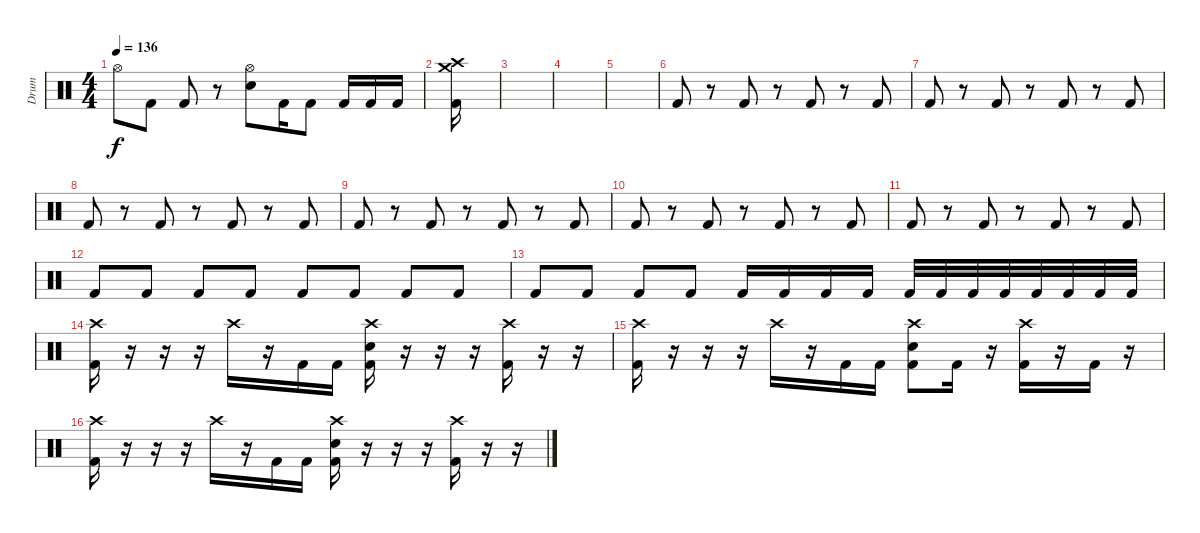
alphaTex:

\track ("Drum" "Drum") {instrument percussion}
\staff {score}
\articulation defaults
\ts (4 4)
\tempo 136
\clef neutral
\ks c "Hi-Hat (open)".8{dy f} "Kick (hit) 2".8 "Kick (hit) 2".8
r.8 ("Hi-Hat (open)" "Electric Snare (hit)").8 "Kick (hit) 2".16 "Kick (hit) 2".8 "Kick (hit) 2".16 "Kick (hit) 2".16 "Kick (hit) 2".16 |
("Crash medium (hit)" "Crash high (hit)" "Kick (hit) 2").16 |
|
|
|
"Kick (hit) 2".8 r.8 "Kick (hit) 2".8 r.8 "Kick (hit) 2".8 r.8 "Kick (hit) 2".8 |
"Kick (hit) 2".8 r.8 "Kick (hit) 2".8 r.8 "Kick (hit) 2".8 r.8 "Kick (hit) 2".8 |
"Kick (hit) 2".8 r.8 "Kick (hit) 2".8 r.8 "Kick (hit) 2".8 r.8 "Kick (hit) 2".8 |
"Kick (hit) 2".8 r.8 "Kick (hit) 2".8 r.8 "Kick (hit) 2".8 r.8 "Kick (hit) 2".8 |
"Kick (hit) 2".8 r.8 "Kick (hit) 2".8 r.8 "Kick (hit) 2".8 r.8 "Kick (hit) 2".8 |
"Kick (hit) 2".8 r.8 "Kick (hit) 2".8 r.8 "Kick (hit) 2".8 r.8 "Kick (hit) 2".8 |
"Kick (hit) 2".8 "Kick (hit) 2".8 "Kick (hit) 2".8 "Kick (hit) 2".8 "Kick (hit) 2".8 "Kick (hit) 2".8 "Kick (hit) 2".8 "Kick (hit) 2".8 |
"Kick (hit) 2".8 "Kick (hit) 2".8 "Kick (hit) 2".8 "Kick (hit) 2".8 "Kick (hit) 2".16 "Kick (hit) 2".16 "Kick (hit) 2".16 "Kick (hit) 2".16 "Kick (hit) 2".32 "Kick (hit) 2".32 "Kick (hit) 2".32 "Kick (hit) 2".32 "Kick (hit) 2".32 "Kick (hit) 2".32 "Kick (hit) 2".32 "Kick (hit) 2".32 |
("Crash high (hit)" "Kick (hit) 2").16 r.16 r.16 r.16 "Crash high (hit)".16 r.16 "Kick (hit) 2".16 "Kick (hit) 2".16 ("Crash high (hit)" "Electric Snare (hit)" "Kick (hit) 2").16 r.16 r.16 r.16 ("Crash high (hit)" "Kick (hit) 2").16 r.16 r.16 |
("Crash high (hit)" "Kick (hit) 2").16 r.16 r.16 r.16 "Crash high (hit)".16 r.16 "Kick (hit) 2".16 "Kick (hit) 2".16 ("Crash high (hit)" "Electric Snare (hit)" "Kick (hit) 2").8 "Kick (hit) 2".16 r.16 ("Crash high (hit)" "Kick (hit) 2").16 r.16 "Kick (hit) 2".16 r.16 |
("Crash high (hit)" "Kick (hit) 2").16 r.16 r.16 r.16 "Crash high (hit)".16 r.16 "Kick (hit) 2".16 "Kick (hit) 2".16 ("Crash high (hit)" "Electric Snare (hit)" "Kick (hit) 2").16 r.16 r.16 r.16 ("Crash high (hit)" "Kick (hit) 2").16 r.16 r.16
